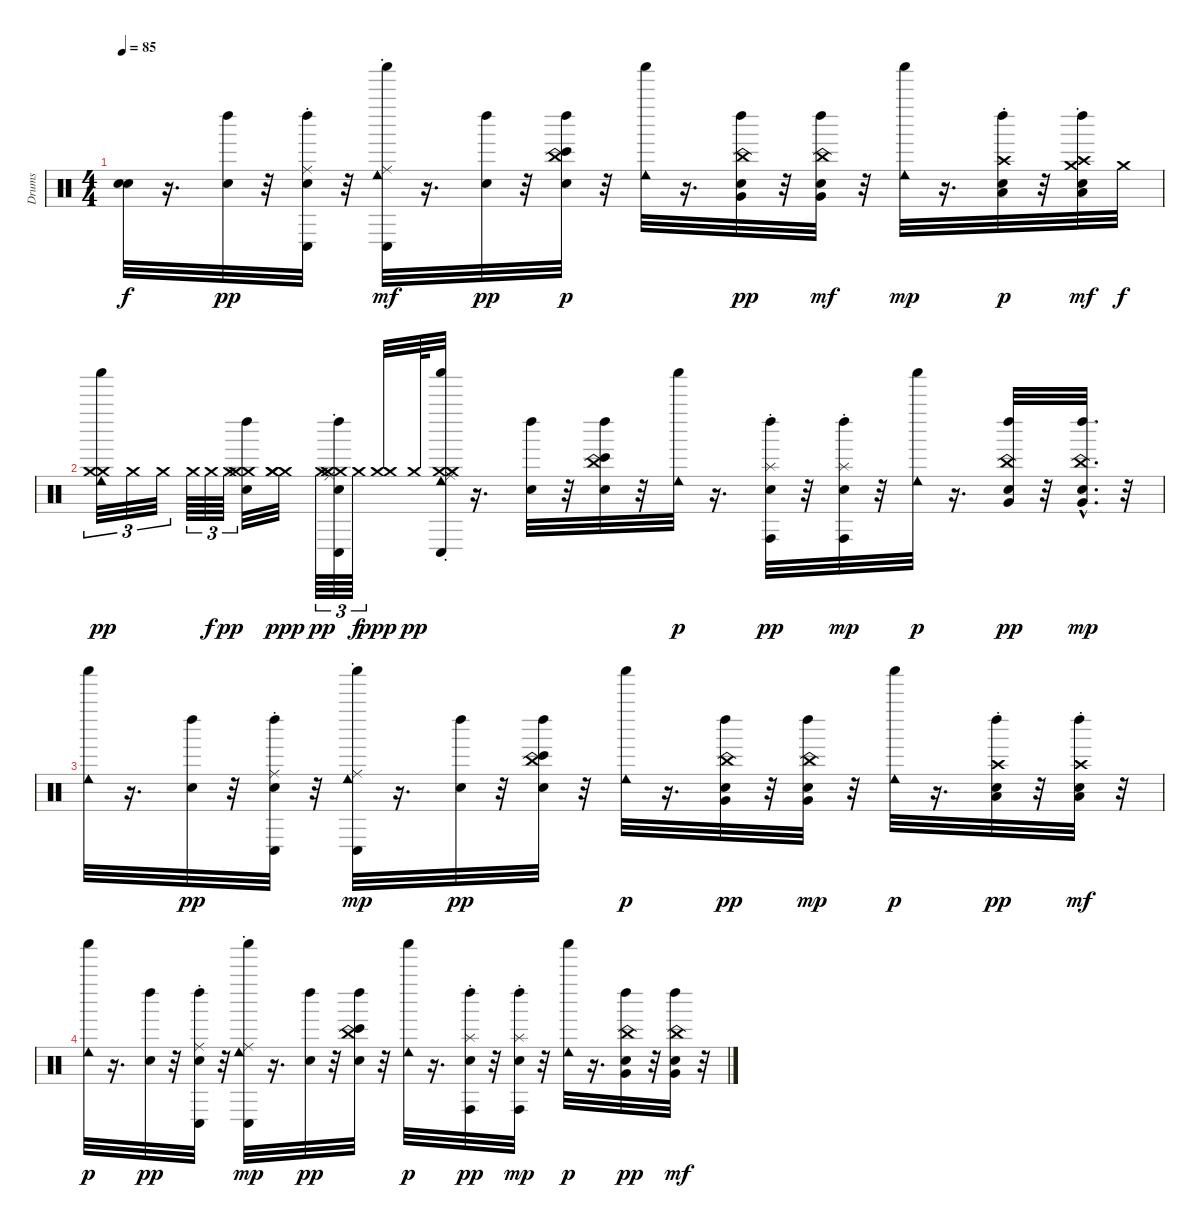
\track ("Drums" "Drums") {instrument percussion}
\staff {score}
\articulation defaults
\ts (4 4)
\tempo 85
\clef neutral
\ks c
("Snare (hit)"{t} "Snare (hit)"{t}).32{dy f} r.16{d} ("Left Maraca (hit)" "Snare (hit)").32{dy pp} r.32 ("Conga low (hit)" "Ride (choke)" "Left Maraca (hit)" "Snare (hit)").32 r.32 ("Shaker (hit)" "Cowbell low (hit)" "Conga low (hit)" "Ride (choke)").32{dy mf} r.16{d} ("Left Maraca (hit)" "Snare (hit)").32{dy pp} r.32 ("China (choke)" "Bongo High (hit)" "Snare (hit)" "Left Maraca (hit)").32{dy p} r.32 ("Shaker (hit)" "Cowbell low (hit)").32 r.16{d} ("China (choke)" "Very Low Tom (hit)" "Snare (hit)" "Left Maraca (hit)").32{dy pp} r.32 ("Snare (hit)" "Left Maraca (hit)" "Very Low Tom (hit)" "China (choke)").32{dy mf} r.32 ("Cowbell low (hit)" "Shaker (hit)").32{dy mp} r.16{d} ("Low Floor Tom (hit)" "Crash high (choke)" "Left Maraca (hit)" "Snare (hit)").32{dy p} r.32 ("Crash medium (hit)" "Left Maraca (hit)" "Snare (hit)" "Crash high (choke)" "Low Floor Tom (hit)").32{dy mf} "Crash medium (hit)".32{dy f} |
("Shaker (hit)" "Cowbell low (hit)" "Crash medium (hit)" "Crash medium (hit)").32{tu (3 2) dy pp} "Crash medium (hit)".32{tu (3 2)} "Crash medium (hit)".32{tu (3 2)} "Crash medium (hit)".64{tu (3 2)} "Crash medium (hit)".64{tu (3 2) dy f} "Crash medium (hit)".64{tu (3 2) dy pp} ("Crash medium (hit)" "Left Maraca (hit)" "Snare (hit)" "Crash medium (hit)").32 ("Crash medium (hit)" "Crash medium (hit)" "Crash medium (hit)").32{dy ppp} "Crash medium (hit)".64{tu (3 2) dy pp} ("Crash medium (hit)" "Conga low (hit)" "Ride (choke)" "Left Maraca (hit)" "Snare (hit)" "Crash medium (hit)").64{tu (3 2)} "Crash medium (hit)".64{tu (3 2) dy f} ("Crash medium (hit)" "Crash medium (hit)").32{dy ppp} "Crash medium (hit)".64{dy pp} ("Crash medium (hit)" "Shaker (hit)" "Conga low (hit)" "Cowbell low (hit)" "Ride (choke)" "Crash medium (hit)").32 r.16{d} ("Left Maraca (hit)" "Snare (hit)").32 r.32 ("China (choke)" "Bongo High (hit)" "Left Maraca (hit)" "Snare (hit)").32 r.32 ("Shaker (hit)" "Cowbell low (hit)").32{dy p} r.16{d} ("Conga high (hit)" "Left Maraca (hit)" "Splash (choke)" "Snare (hit)").32{dy pp} r.32 ("Left Maraca (hit)" "Snare (hit)" "Conga high (hit)" "Splash (choke)").32{dy mp} r.32 ("Shaker (hit)" "Cowbell low (hit)").32{dy p} r.16{d} ("China (choke)" "Very Low Tom (hit)" "Left Maraca (hit)" "Snare (hit)").32{dy pp} r.32 ("Left Maraca (hit)"{hac} "China (choke)"{hac} "Snare (hit)"{hac} "Very Low Tom (hit)"{hac}).32{d dy mp} r.32 |
("Cowbell low (hit)" "Shaker (hit)").32 r.16{d} ("Left Maraca (hit)" "Snare (hit)").32{dy pp} r.32 ("Ride (choke)" "Conga low (hit)" "Snare (hit)" "Left Maraca (hit)").32 r.32 ("Shaker (hit)" "Cowbell low (hit)" "Conga low (hit)" "Ride (choke)").32{dy mp} r.16{d} ("Left Maraca (hit)" "Snare (hit)").32{dy pp} r.32 ("China (choke)" "Bongo High (hit)" "Left Maraca (hit)" "Snare (hit)").32 r.32 ("Shaker (hit)" "Cowbell low (hit)").32{dy p} r.16{d} ("China (choke)" "Very Low Tom (hit)" "Left Maraca (hit)" "Snare (hit)").32{dy pp} r.32 ("Left Maraca (hit)" "China (choke)" "Snare (hit)" "Very Low Tom (hit)").32{dy mp} r.32 ("Shaker (hit)" "Cowbell low (hit)").32{dy p} r.16{d} ("Low Floor Tom (hit)" "Crash high (choke)" "Left Maraca (hit)" "Snare (hit)").32{dy pp} r.32 ("Snare (hit)" "Left Maraca (hit)" "Low Floor Tom (hit)" "Crash high (choke)").32{dy mf} r.32 |
("Shaker (hit)" "Cowbell low (hit)").32{dy p} r.16{d} ("Left Maraca (hit)" "Snare (hit)").32{dy pp} r.32 ("Conga low (hit)" "Ride (choke)" "Left Maraca (hit)" "Snare (hit)").32 r.32 ("Shaker (hit)" "Cowbell low (hit)" "Conga low (hit)" "Ride (choke)").32{dy mp} r.16{d} ("Left Maraca (hit)" "Snare (hit)").32{dy pp} r.32 ("Bongo High (hit)" "China (choke)" "Left Maraca (hit)" "Snare (hit)").32 r.32 ("Shaker (hit)" "Cowbell low (hit)").32{dy p} r.16{d} ("Conga high (hit)" "Left Maraca (hit)" "Splash (choke)" "Snare (hit)").32{dy pp} r.32 ("Left Maraca (hit)" "Snare (hit)" "Conga high (hit)" "Splash (choke)").32{dy mp} r.32 ("Shaker (hit)" "Cowbell low (hit)").32{dy p} r.16{d} ("China (choke)" "Very Low Tom (hit)" "Snare (hit)" "Left Maraca (hit)").32{dy pp} r.32 ("Snare (hit)" "Left Maraca (hit)" "Very Low Tom (hit)" "China (choke)").32{dy mf} r.32
